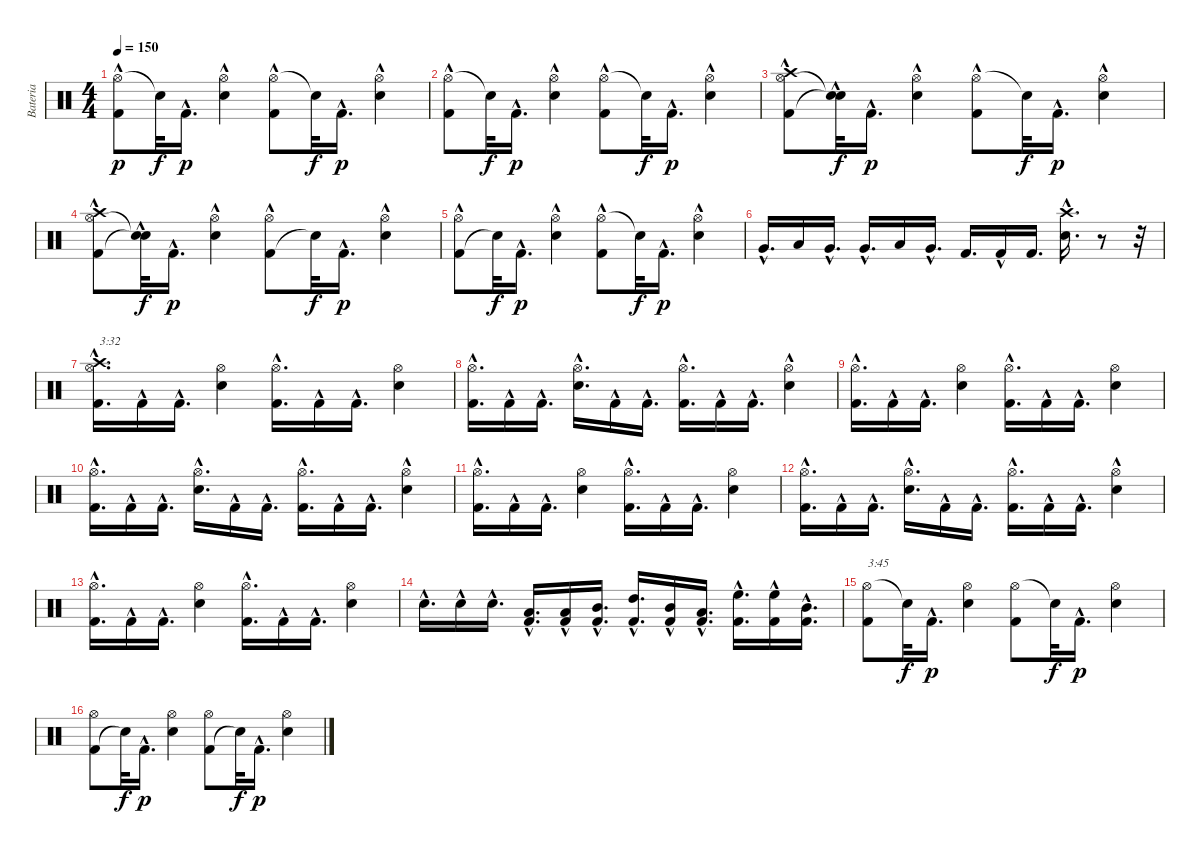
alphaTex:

\track ("Bateria" "Bateria") {instrument percussion}
\staff {score}
\articulation defaults
\ts (4 4)
\tempo 150
\clef neutral
\ks c
("Hi-Hat (open)" "Kick (hit) 2"{hac}).8{dy p} "Snare (hit)"{t}.32{dy f} "Kick (hit) 2"{hac}.16{d dy p} ("Snare (hit) 2"{hac} "Hi-Hat (open)").4 ("Hi-Hat (open)" "Kick (hit) 2"{hac}).8 "Snare (hit)"{t}.32{dy f} "Kick (hit) 2"{hac}.16{d dy p} ("Snare (hit) 2"{hac} "Hi-Hat (open)").4 |
("Hi-Hat (open)" "Kick (hit) 2"{hac}).8 "Snare (hit)"{t}.32{dy f} "Kick (hit) 2"{hac}.16{d dy p} ("Snare (hit) 2"{hac} "Hi-Hat (open)").4 ("Hi-Hat (open)" "Kick (hit) 2"{hac}).8 "Snare (hit)"{t}.32{dy f} "Kick (hit) 2"{hac}.16{d dy p} ("Snare (hit) 2"{hac} "Hi-Hat (open)").4 |
("Hi-Hat (open)" "Kick (hit) 2"{hac} "Crash high (hit)").8 ("Snare (hit)"{t} "Snare (hit)"{hac t}).32{dy f} "Kick (hit) 2"{hac}.16{d dy p} ("Hi-Hat (open)" "Snare (hit) 2"{hac}).4 ("Hi-Hat (open)" "Kick (hit) 2"{hac}).8 "Snare (hit)"{t}.32{dy f} "Kick (hit) 2"{hac}.16{d dy p} ("Hi-Hat (open)" "Snare (hit) 2"{hac}).4 |
("Kick (hit) 2"{hac} "Hi-Hat (open)" "Crash high (hit)").8 ("Snare (hit)"{t} "Snare (hit)"{hac t}).32{dy f} "Kick (hit) 2"{hac}.16{d dy p} ("Hi-Hat (open)" "Snare (hit) 2"{hac}).4 ("Kick (hit) 2"{hac} "Hi-Hat (open)").8 "Snare (hit)"{t}.32{dy f} "Kick (hit) 2"{hac}.16{d dy p} ("Snare (hit) 2"{hac} "Hi-Hat (open)").4 |
("Kick (hit) 2"{hac} "Hi-Hat (open)").8 "Snare (hit)"{t}.32{dy f} "Kick (hit) 2"{hac}.16{d dy p} ("Snare (hit) 2"{hac} "Hi-Hat (open)").4 ("Hi-Hat (open)" "Kick (hit) 2"{hac}).8 "Snare (hit)"{t}.32{dy f} "Kick (hit) 2"{hac}.16{d dy p} ("Hi-Hat (open)" "Snare (hit) 2"{hac}).4 |
"Very Low Tom (hit)"{hac}.16{d} "Low Tom (hit)".16 "Very Low Tom (hit)"{hac}.16{d} "Very Low Tom (hit)"{hac}.16{d} "Low Tom (hit)".16 "Very Low Tom (hit)"{hac}.16{d} "Kick (hit) 2".16{d} "Kick (hit) 2"{hac}.16 "Kick (hit) 2".16{d} ("Crash high (hit)"{hac} "Snare (hit) 2"{hac}).16{d} r.8 r.32 |
("Hi-Hat (open)" "Crash high (hit)" "Kick (hit) 2"{hac}).16{d txt "3:32"} "Kick (hit) 2"{hac}.16 "Kick (hit) 2"{hac}.16{d} ("Hi-Hat (open)" "Snare (hit) 2").4 ("Hi-Hat (open)" "Kick (hit) 2"{hac}).16{d} "Kick (hit) 2"{hac}.16 "Kick (hit) 2"{hac}.16{d} ("Snare (hit) 2" "Hi-Hat (open)").4 |
("Hi-Hat (open)" "Kick (hit) 2"{hac}).16{d} "Kick (hit) 2"{hac}.16 "Kick (hit) 2"{hac}.16{d} ("Snare (hit) 2"{hac} "Hi-Hat (open)").16{d} "Kick (hit) 2"{hac}.16 "Kick (hit) 2"{hac}.16{d} ("Kick (hit) 2"{hac} "Hi-Hat (open)").16{d} "Kick (hit) 2"{hac}.16 "Kick (hit) 2"{hac}.16{d} ("Electric Snare (hit)"{hac} "Hi-Hat (open)").4 |
("Kick (hit) 2"{hac} "Hi-Hat (open)").16{d} "Kick (hit) 2"{hac}.16 "Kick (hit) 2"{hac}.16{d} ("Snare (hit) 2" "Hi-Hat (open)").4 ("Hi-Hat (open)" "Kick (hit) 2"{hac}).16{d} "Kick (hit) 2"{hac}.16 "Kick (hit) 2"{hac}.16{d} ("Hi-Hat (open)" "Snare (hit) 2").4 |
("Hi-Hat (open)" "Kick (hit) 2"{hac}).16{d} "Kick (hit) 2"{hac}.16 "Kick (hit) 2"{hac}.16{d} ("Hi-Hat (open)" "Snare (hit) 2"{hac}).16{d} "Kick (hit) 2"{hac}.16 "Kick (hit) 2"{hac}.16{d} ("Hi-Hat (open)" "Kick (hit) 2"{hac}).16{d} "Kick (hit) 2"{hac}.16 "Kick (hit) 2"{hac}.16{d} ("Hi-Hat (open)" "Electric Snare (hit)"{hac}).4 |
("Hi-Hat (open)" "Kick (hit) 2"{hac}).16{d} "Kick (hit) 2"{hac}.16 "Kick (hit) 2"{hac}.16{d} ("Snare (hit) 2" "Hi-Hat (open)").4 ("Hi-Hat (open)" "Kick (hit) 2"{hac}).16{d} "Kick (hit) 2"{hac}.16 "Kick (hit) 2"{hac}.16{d} ("Snare (hit) 2" "Hi-Hat (open)").4 |
("Hi-Hat (open)" "Kick (hit) 2"{hac}).16{d} "Kick (hit) 2"{hac}.16 "Kick (hit) 2"{hac}.16{d} ("Snare (hit) 2"{hac} "Hi-Hat (open)").16{d} "Kick (hit) 2"{hac}.16 "Kick (hit) 2"{hac}.16{d} ("Kick (hit) 2"{hac} "Hi-Hat (open)").16{d} "Kick (hit) 2"{hac}.16 "Kick (hit) 2"{hac}.16{d} ("Electric Snare (hit)"{hac} "Hi-Hat (open)").4 |
("Kick (hit) 2"{hac} "Hi-Hat (open)").16{d} "Kick (hit) 2"{hac}.16 "Kick (hit) 2"{hac}.16{d} ("Hi-Hat (open)" "Snare (hit) 2").4 ("Hi-Hat (open)" "Kick (hit) 2"{hac}).16{d} "Kick (hit) 2"{hac}.16 "Kick (hit) 2"{hac}.16{d} ("Snare (hit) 2" "Hi-Hat (open)").4 |
"Snare (hit) 2"{hac}.16{d} "Snare (hit) 2"{hac}.16 "Snare (hit) 2"{hac}.16{d} ("Kick (hit) 2"{hac} "Low Tom (hit)"{hac}).16{d} ("Low Tom (hit)"{hac} "Kick (hit) 2"{hac}).16 ("Kick (hit) 2"{hac} "Mid Tom (hit)"{hac}).16{d} ("Kick (hit) 2"{hac} "High Tom (hit)"{hac}).16{d} ("Mid Tom (hit)"{hac} "Kick (hit) 2"{hac}).16 ("Kick (hit) 2"{hac} "Low Tom (hit)"{hac}).16{d} ("High Floor Tom (hit)"{hac} "Kick (hit) 2"{hac}).16{d} ("Kick (hit) 2"{hac} "High Floor Tom (hit)"{hac}).16 ("Kick (hit) 2"{hac} "Mid Tom (hit)"{hac}).16{d} |
("Hi-Hat (open)" "Kick (hit) 2").8{txt "3:45"} "Snare (hit)"{t}.32{dy f} "Kick (hit) 2"{hac}.16{d dy p} ("Hi-Hat (open)" "Snare (hit) 2").4 ("Hi-Hat (open)" "Kick (hit) 2").8 "Snare (hit)"{t}.32{dy f} "Kick (hit) 2"{hac}.16{d dy p} ("Hi-Hat (open)" "Snare (hit) 2").4 |
("Kick (hit) 2" "Hi-Hat (open)").8 "Snare (hit)"{t}.32{dy f} "Kick (hit) 2"{hac}.16{d dy p} ("Snare (hit) 2" "Hi-Hat (open)").4 ("Kick (hit) 2" "Hi-Hat (open)").8 "Snare (hit)"{t}.32{dy f} "Kick (hit) 2"{hac}.16{d dy p} ("Snare (hit) 2" "Hi-Hat (open)").4
